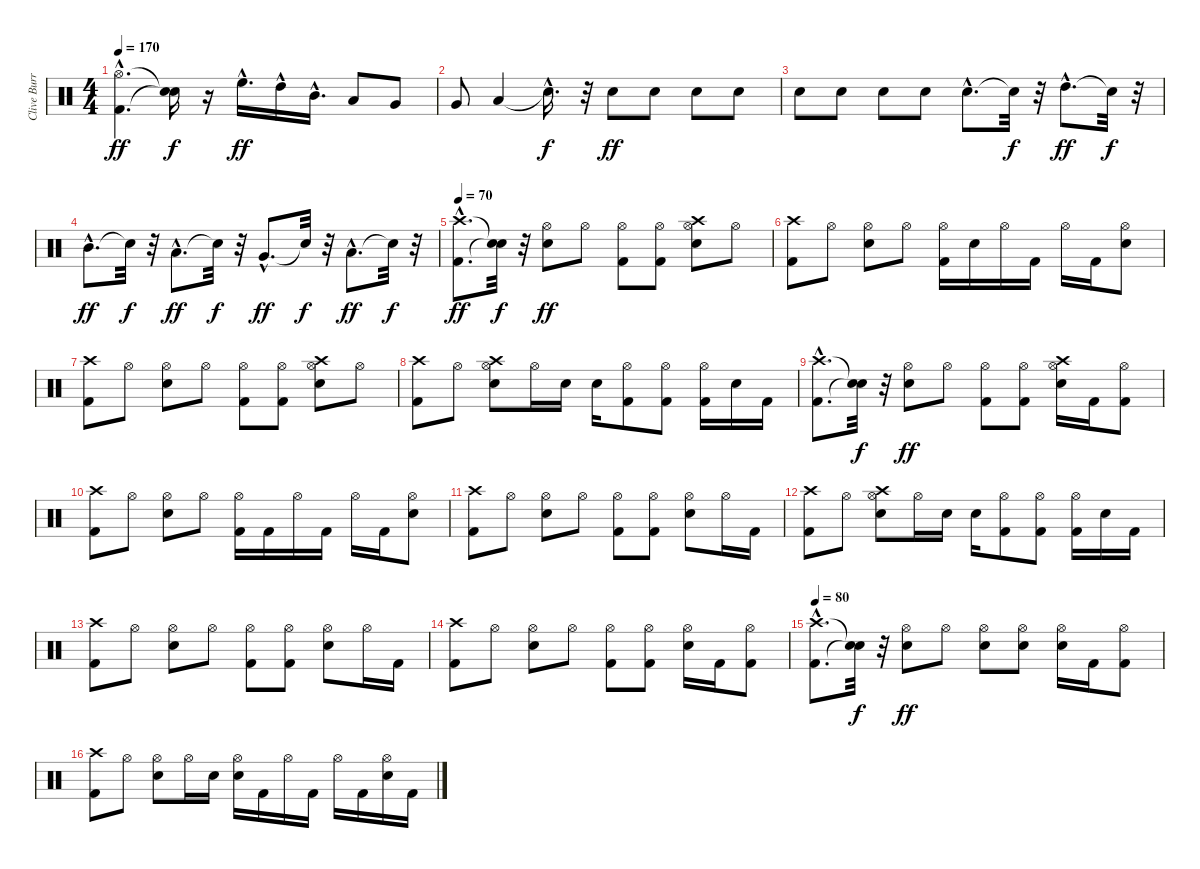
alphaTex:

\track ("Clive Burr" "Clive Burr") {instrument percussion}
\staff {score}
\articulation defaults
\ts (4 4)
\tempo 170
\clef neutral
\ks c
("Kick (hit) 2"{hac} "Hi-Hat (open)"{hac}).4{d dy ff} ("Snare (hit)"{t} "Snare (hit)"{t}).16{dy f} r.16 "High Floor Tom (hit)"{hac}.16{d dy ff} "High Tom (hit)"{hac}.16 "Mid Tom (hit)"{hac}.16{d} "Low Tom (hit)".8 "Very Low Tom (hit)".8 |
"Very Low Tom (hit)".8 "Low Floor Tom (hit)".4 "Snare (hit)"{hac t}.16{d dy f} r.32 "Snare (hit) 2".8{dy ff} "Snare (hit) 2".8 "Snare (hit) 2".8 "Snare (hit) 2".8 |
"Snare (hit) 2".8 "Snare (hit) 2".8 "Snare (hit) 2".8 "Snare (hit) 2".8 "Snare (hit) 2"{hac}.8{d} "Snare (hit)"{t}.32{dy f} r.32 "High Tom (hit)"{hac}.8{d dy ff} "Snare (hit)"{t}.32{dy f} r.32 |
"Mid Tom (hit)"{hac}.8{d dy ff} "Snare (hit)"{t}.32{dy f} r.32 "Low Tom (hit)"{hac}.8{d dy ff} "Snare (hit)"{t}.32{dy f} r.32 "Very Low Tom (hit)"{hac}.8{d dy ff} "Snare (hit)"{t}.32{dy f} r.32 "Low Floor Tom (hit)"{hac}.8{d dy ff} "Snare (hit)"{t}.32{dy f} r.32 |
\tempo 80
\tempo 70
("Kick (hit) 2"{hac} "Crash high (hit)"{hac}).8{d dy ff} ("Snare (hit)"{t} "Snare (hit)"{t}).32{dy f} r.32 ("Snare (hit) 2" "Hi-Hat (open)").8{dy ff} "Hi-Hat (open)".8 ("Kick (hit) 2" "Hi-Hat (open)").8 ("Kick (hit) 2" "Hi-Hat (open)").8 ("Snare (hit) 2" "Hi-Hat (open)" "Crash high (hit)").8 "Hi-Hat (open)".8 |
("Kick (hit) 2" "Crash high (hit)").8 "Hi-Hat (open)".8 ("Snare (hit) 2" "Hi-Hat (open)").8 "Hi-Hat (open)".8 ("Kick (hit) 2" "Hi-Hat (open)").16 "Snare (hit) 2".16 "Hi-Hat (open)".16 "Kick (hit) 2".16 "Hi-Hat (open)".16 "Kick (hit) 2".16 ("Snare (hit) 2" "Hi-Hat (open)").8 |
("Kick (hit) 2" "Crash high (hit)").8 "Hi-Hat (open)".8 ("Snare (hit) 2" "Hi-Hat (open)").8 "Hi-Hat (open)".8 ("Kick (hit) 2" "Hi-Hat (open)").8 ("Kick (hit) 2" "Hi-Hat (open)").8 ("Snare (hit) 2" "Hi-Hat (open)" "Crash high (hit)").8 "Hi-Hat (open)".8 |
("Kick (hit) 2" "Crash high (hit)").8 "Hi-Hat (open)".8 ("Snare (hit) 2" "Hi-Hat (open)" "Crash high (hit)").8 "Hi-Hat (open)".16 "Snare (hit) 2".16 "Snare (hit) 2".16 ("Kick (hit) 2" "Hi-Hat (open)").8 ("Kick (hit) 2" "Hi-Hat (open)").8 ("Kick (hit) 2" "Hi-Hat (open)").16 "Snare (hit) 2".16 "Kick (hit) 2".16 |
("Kick (hit) 2"{hac} "Crash high (hit)"{hac}).8{d} ("Snare (hit)"{t} "Snare (hit)"{t}).32{dy f} r.32 ("Snare (hit) 2" "Hi-Hat (open)").8{dy ff} "Hi-Hat (open)".8 ("Kick (hit) 2" "Hi-Hat (open)").8 ("Kick (hit) 2" "Hi-Hat (open)").8 ("Snare (hit) 2" "Hi-Hat (open)" "Crash high (hit)").16 "Kick (hit) 2".16 ("Kick (hit) 2" "Hi-Hat (open)").8 |
("Kick (hit) 2" "Crash high (hit)").8 "Hi-Hat (open)".8 ("Snare (hit) 2" "Hi-Hat (open)").8 "Hi-Hat (open)".8 ("Kick (hit) 2" "Hi-Hat (open)").16 "Kick (hit) 2".16 "Hi-Hat (open)".16 "Kick (hit) 2".16 "Hi-Hat (open)".16 "Kick (hit) 2".16 ("Snare (hit) 2" "Hi-Hat (open)").8 |
("Kick (hit) 2" "Crash high (hit)").8 "Hi-Hat (open)".8 ("Snare (hit) 2" "Hi-Hat (open)").8 "Hi-Hat (open)".8 ("Kick (hit) 2" "Hi-Hat (open)").8 ("Kick (hit) 2" "Hi-Hat (open)").8 ("Snare (hit) 2" "Hi-Hat (open)").8 "Hi-Hat (open)".16 "Kick (hit) 2".16 |
("Kick (hit) 2" "Crash high (hit)").8 "Hi-Hat (open)".8 ("Snare (hit) 2" "Hi-Hat (open)" "Crash high (hit)").8 "Hi-Hat (open)".16 "Snare (hit) 2".16 "Snare (hit) 2".16 ("Kick (hit) 2" "Hi-Hat (open)").8 ("Kick (hit) 2" "Hi-Hat (open)").8 ("Kick (hit) 2" "Hi-Hat (open)").16 "Snare (hit) 2".16 "Kick (hit) 2".16 |
("Kick (hit) 2" "Crash high (hit)").8 "Hi-Hat (open)".8 ("Snare (hit) 2" "Hi-Hat (open)").8 "Hi-Hat (open)".8 ("Kick (hit) 2" "Hi-Hat (open)").8 ("Kick (hit) 2" "Hi-Hat (open)").8 ("Snare (hit) 2" "Hi-Hat (open)").8 "Hi-Hat (open)".16 "Kick (hit) 2".16 |
("Kick (hit) 2" "Crash high (hit)").8 "Hi-Hat (open)".8 ("Snare (hit) 2" "Hi-Hat (open)").8 "Hi-Hat (open)".8 ("Kick (hit) 2" "Hi-Hat (open)").8 ("Kick (hit) 2" "Hi-Hat (open)").8 ("Snare (hit) 2" "Hi-Hat (open)").16 "Kick (hit) 2".16 ("Kick (hit) 2" "Hi-Hat (open)").8 |
\tempo 80
("Kick (hit) 2"{hac} "Crash high (hit)"{hac}).8{d} ("Snare (hit)"{t} "Snare (hit)"{t}).32{dy f} r.32 ("Snare (hit) 2" "Hi-Hat (open)").8{dy ff} "Hi-Hat (open)".8 ("Snare (hit) 2" "Hi-Hat (open)").8 ("Snare (hit) 2" "Hi-Hat (open)").8 ("Snare (hit) 2" "Hi-Hat (open)").16 "Kick (hit) 2".16 ("Kick (hit) 2" "Hi-Hat (open)").8 |
("Kick (hit) 2" "Crash high (hit)").8 "Hi-Hat (open)".8 ("Snare (hit) 2" "Hi-Hat (open)").8 "Hi-Hat (open)".16 "Snare (hit) 2".16 ("Snare (hit) 2" "Hi-Hat (open)").16 "Kick (hit) 2".16 "Hi-Hat (open)".16 "Kick (hit) 2".16 "Hi-Hat (open)".16 "Kick (hit) 2".16 ("Snare (hit) 2" "Hi-Hat (open)").16 "Kick (hit) 2".16
